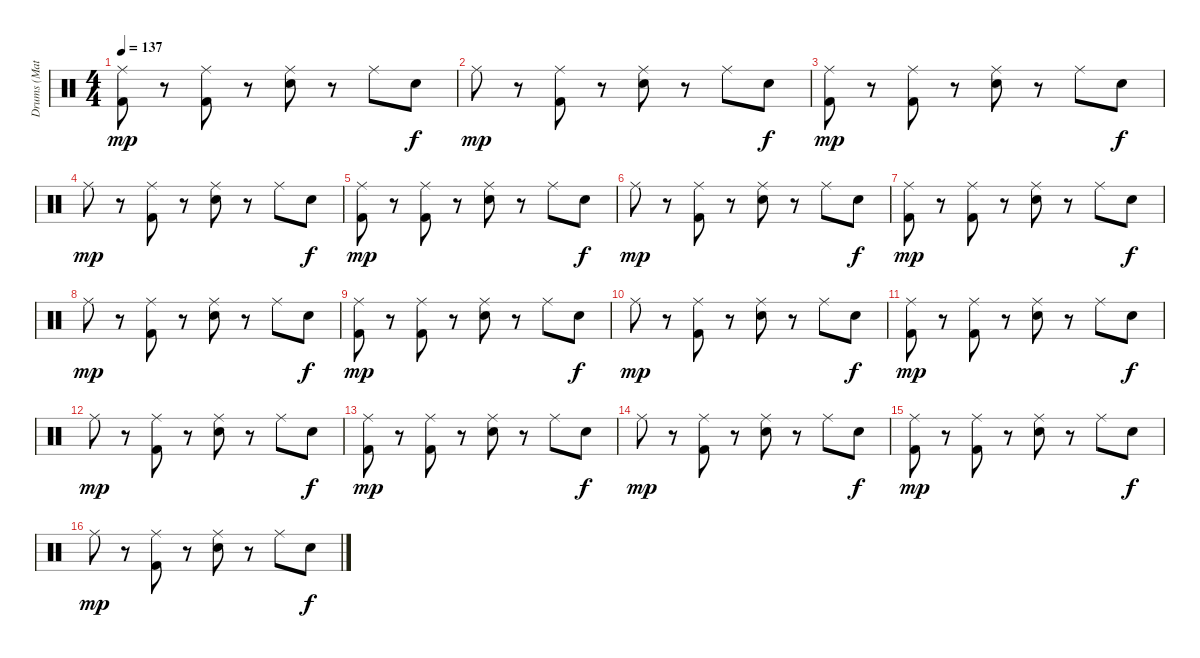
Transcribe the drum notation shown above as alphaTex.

\track ("Drums (Matthias)" "Drums (Mat") {instrument percussion}
\staff {score}
\articulation defaults
\ts (4 4)
\tempo 137
\clef neutral
\ks c
("Ride (middle)" "Kick (hit) 2").8{dy mp} r.8 ("Ride (middle)" "Kick (hit) 2").8 r.8 ("Ride (middle)" "Electric Snare (hit)").8 r.8 "Ride (middle)".8 "Electric Snare (hit)".8{dy f} |
"Ride (middle)".8{dy mp} r.8 ("Ride (middle)" "Kick (hit) 2").8 r.8 ("Ride (middle)" "Electric Snare (hit)").8 r.8 "Ride (middle)".8 "Electric Snare (hit)".8{dy f} |
("Ride (middle)" "Kick (hit) 2").8{dy mp} r.8 ("Ride (middle)" "Kick (hit) 2").8 r.8 ("Ride (middle)" "Electric Snare (hit)").8 r.8 "Ride (middle)".8 "Electric Snare (hit)".8{dy f} |
"Ride (middle)".8{dy mp} r.8 ("Ride (middle)" "Kick (hit) 2").8 r.8 ("Ride (middle)" "Electric Snare (hit)").8 r.8 "Ride (middle)".8 "Electric Snare (hit)".8{dy f} |
("Ride (middle)" "Kick (hit) 2").8{dy mp} r.8 ("Ride (middle)" "Kick (hit) 2").8 r.8 ("Ride (middle)" "Electric Snare (hit)").8 r.8 "Ride (middle)".8 "Electric Snare (hit)".8{dy f} |
"Ride (middle)".8{dy mp} r.8 ("Ride (middle)" "Kick (hit) 2").8 r.8 ("Ride (middle)" "Electric Snare (hit)").8 r.8 "Ride (middle)".8 "Electric Snare (hit)".8{dy f} |
("Ride (middle)" "Kick (hit) 2").8{dy mp} r.8 ("Ride (middle)" "Kick (hit) 2").8 r.8 ("Ride (middle)" "Electric Snare (hit)").8 r.8 "Ride (middle)".8 "Electric Snare (hit)".8{dy f} |
"Ride (middle)".8{dy mp} r.8 ("Ride (middle)" "Kick (hit) 2").8 r.8 ("Ride (middle)" "Electric Snare (hit)").8 r.8 "Ride (middle)".8 "Electric Snare (hit)".8{dy f} |
("Ride (middle)" "Kick (hit) 2").8{dy mp} r.8 ("Ride (middle)" "Kick (hit) 2").8 r.8 ("Ride (middle)" "Electric Snare (hit)").8 r.8 "Ride (middle)".8 "Electric Snare (hit)".8{dy f} |
"Ride (middle)".8{dy mp} r.8 ("Ride (middle)" "Kick (hit) 2").8 r.8 ("Ride (middle)" "Electric Snare (hit)").8 r.8 "Ride (middle)".8 "Electric Snare (hit)".8{dy f} |
("Ride (middle)" "Kick (hit) 2").8{dy mp} r.8 ("Ride (middle)" "Kick (hit) 2").8 r.8 ("Ride (middle)" "Electric Snare (hit)").8 r.8 "Ride (middle)".8 "Electric Snare (hit)".8{dy f} |
"Ride (middle)".8{dy mp} r.8 ("Ride (middle)" "Kick (hit) 2").8 r.8 ("Ride (middle)" "Electric Snare (hit)").8 r.8 "Ride (middle)".8 "Electric Snare (hit)".8{dy f} |
("Ride (middle)" "Kick (hit) 2").8{dy mp} r.8 ("Ride (middle)" "Kick (hit) 2").8 r.8 ("Ride (middle)" "Electric Snare (hit)").8 r.8 "Ride (middle)".8 "Electric Snare (hit)".8{dy f} |
"Ride (middle)".8{dy mp} r.8 ("Ride (middle)" "Kick (hit) 2").8 r.8 ("Ride (middle)" "Electric Snare (hit)").8 r.8 "Ride (middle)".8 "Electric Snare (hit)".8{dy f} |
("Ride (middle)" "Kick (hit) 2").8{dy mp} r.8 ("Ride (middle)" "Kick (hit) 2").8 r.8 ("Ride (middle)" "Electric Snare (hit)").8 r.8 "Ride (middle)".8 "Electric Snare (hit)".8{dy f} |
"Ride (middle)".8{dy mp} r.8 ("Ride (middle)" "Kick (hit) 2").8 r.8 ("Ride (middle)" "Electric Snare (hit)").8 r.8 "Ride (middle)".8 "Electric Snare (hit)".8{dy f}
